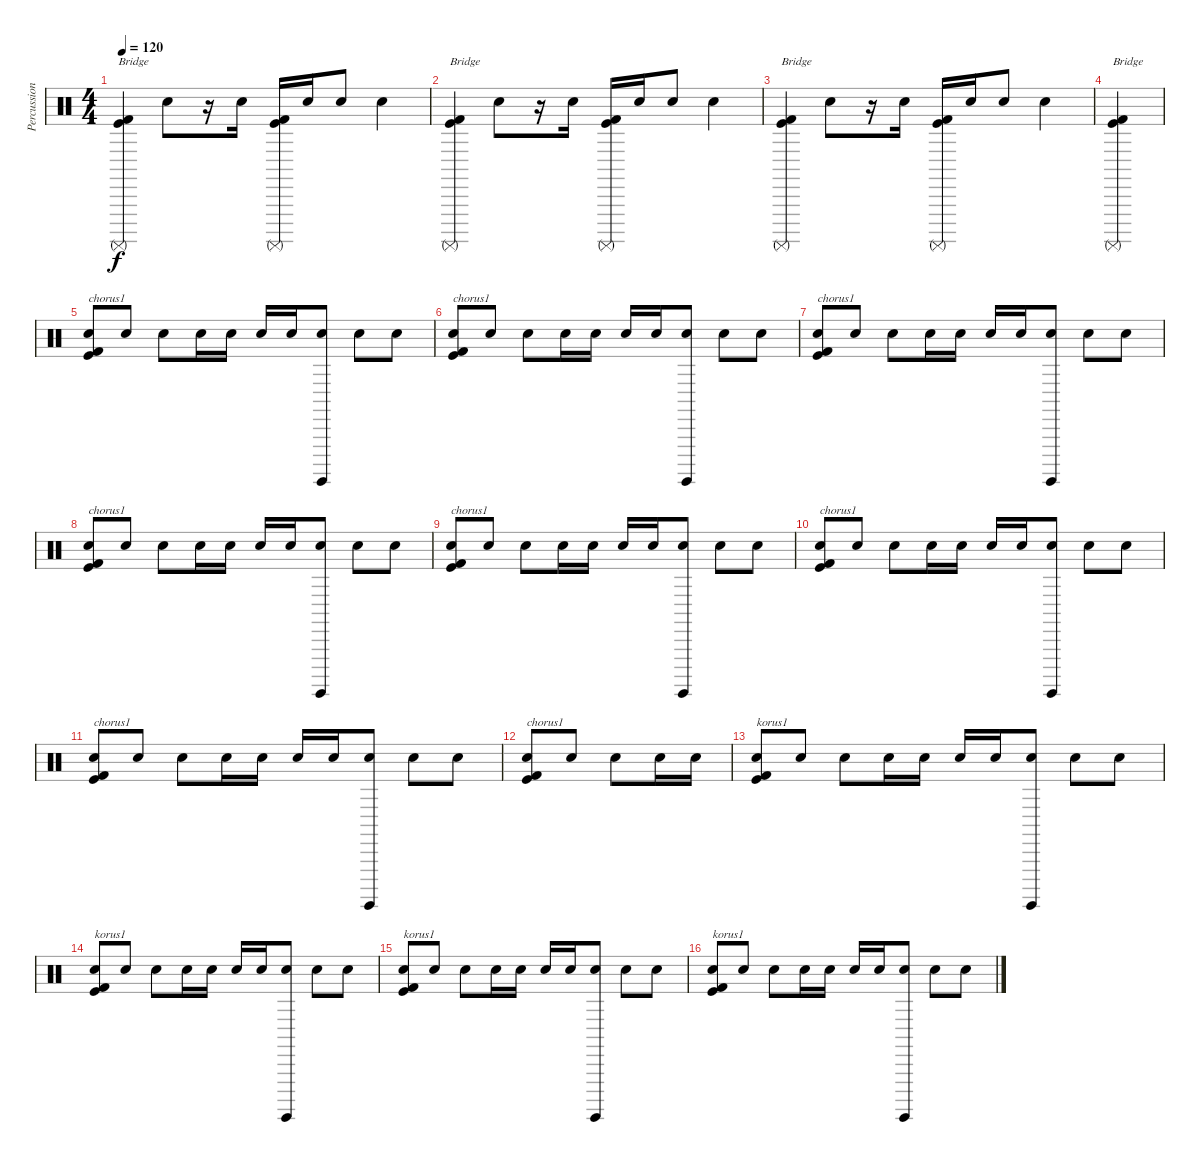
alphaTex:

\track ("Percussion" "Percussion") {instrument percussion}
\staff {score}
\articulation defaults
\ts (4 4)
\tempo 120
\clef neutral
\ks c
("Surdo (mute)" "Kick (hit)" "Kick (hit) 2").4{txt "Bridge" dy f} "Hand Clap (hit)".8 r.16 "Hand Clap (hit)".16 ("Surdo (mute)" "Kick (hit) 2" "Kick (hit)").16 "Hand Clap (hit)".16 "Hand Clap (hit)".8 "Hand Clap (hit)".4 |
("Surdo (mute)" "Kick (hit)" "Kick (hit) 2").4{txt "Bridge"} "Hand Clap (hit)".8 r.16 "Hand Clap (hit)".16 ("Surdo (mute)" "Kick (hit) 2" "Kick (hit)").16 "Hand Clap (hit)".16 "Hand Clap (hit)".8 "Hand Clap (hit)".4 |
("Surdo (mute)" "Kick (hit)" "Kick (hit) 2").4{txt "Bridge"} "Hand Clap (hit)".8 r.16 "Hand Clap (hit)".16 ("Surdo (mute)" "Kick (hit) 2" "Kick (hit)").16 "Hand Clap (hit)".16 "Hand Clap (hit)".8 "Hand Clap (hit)".4 |
("Surdo (mute)" "Kick (hit)" "Kick (hit) 2").4{txt "Bridge"} |
("Hand Clap (hit)" "Kick (hit) 2" "Kick (hit)").8{txt "chorus1"} "Hand Clap (hit)".8 "Hand Clap (hit)".8 "Hand Clap (hit)".16 "Hand Clap (hit)".16 "Hand Clap (hit)".16 "Hand Clap (hit)".16 ("Hand Clap (hit)" "Surdo (hit)").8 "Hand Clap (hit)".8 "Hand Clap (hit)".8 |
("Hand Clap (hit)" "Kick (hit) 2" "Kick (hit)").8{txt "chorus1"} "Hand Clap (hit)".8 "Hand Clap (hit)".8 "Hand Clap (hit)".16 "Hand Clap (hit)".16 "Hand Clap (hit)".16 "Hand Clap (hit)".16 ("Hand Clap (hit)" "Surdo (hit)").8 "Hand Clap (hit)".8 "Hand Clap (hit)".8 |
("Hand Clap (hit)" "Kick (hit) 2" "Kick (hit)").8{txt "chorus1"} "Hand Clap (hit)".8 "Hand Clap (hit)".8 "Hand Clap (hit)".16 "Hand Clap (hit)".16 "Hand Clap (hit)".16 "Hand Clap (hit)".16 ("Hand Clap (hit)" "Surdo (hit)").8 "Hand Clap (hit)".8 "Hand Clap (hit)".8 |
("Hand Clap (hit)" "Kick (hit) 2" "Kick (hit)").8{txt "chorus1"} "Hand Clap (hit)".8 "Hand Clap (hit)".8 "Hand Clap (hit)".16 "Hand Clap (hit)".16 "Hand Clap (hit)".16 "Hand Clap (hit)".16 ("Hand Clap (hit)" "Surdo (hit)").8 "Hand Clap (hit)".8 "Hand Clap (hit)".8 |
("Hand Clap (hit)" "Kick (hit) 2" "Kick (hit)").8{txt "chorus1"} "Hand Clap (hit)".8 "Hand Clap (hit)".8 "Hand Clap (hit)".16 "Hand Clap (hit)".16 "Hand Clap (hit)".16 "Hand Clap (hit)".16 ("Hand Clap (hit)" "Surdo (hit)").8 "Hand Clap (hit)".8 "Hand Clap (hit)".8 |
("Hand Clap (hit)" "Kick (hit) 2" "Kick (hit)").8{txt "chorus1"} "Hand Clap (hit)".8 "Hand Clap (hit)".8 "Hand Clap (hit)".16 "Hand Clap (hit)".16 "Hand Clap (hit)".16 "Hand Clap (hit)".16 ("Hand Clap (hit)" "Surdo (hit)").8 "Hand Clap (hit)".8 "Hand Clap (hit)".8 |
("Hand Clap (hit)" "Kick (hit) 2" "Kick (hit)").8{txt "chorus1"} "Hand Clap (hit)".8 "Hand Clap (hit)".8 "Hand Clap (hit)".16 "Hand Clap (hit)".16 "Hand Clap (hit)".16 "Hand Clap (hit)".16 ("Hand Clap (hit)" "Surdo (hit)").8 "Hand Clap (hit)".8 "Hand Clap (hit)".8 |
("Hand Clap (hit)" "Kick (hit) 2" "Kick (hit)").8{txt "chorus1"} "Hand Clap (hit)".8 "Hand Clap (hit)".8 "Hand Clap (hit)".16 "Hand Clap (hit)".16 |
("Hand Clap (hit)" "Kick (hit) 2" "Kick (hit)").8{txt "korus1"} "Hand Clap (hit)".8 "Hand Clap (hit)".8 "Hand Clap (hit)".16 "Hand Clap (hit)".16 "Hand Clap (hit)".16 "Hand Clap (hit)".16 ("Hand Clap (hit)" "Surdo (hit)").8 "Hand Clap (hit)".8 "Hand Clap (hit)".8 |
("Hand Clap (hit)" "Kick (hit) 2" "Kick (hit)").8{txt "korus1"} "Hand Clap (hit)".8 "Hand Clap (hit)".8 "Hand Clap (hit)".16 "Hand Clap (hit)".16 "Hand Clap (hit)".16 "Hand Clap (hit)".16 ("Hand Clap (hit)" "Surdo (hit)").8 "Hand Clap (hit)".8 "Hand Clap (hit)".8 |
("Hand Clap (hit)" "Kick (hit) 2" "Kick (hit)").8{txt "korus1"} "Hand Clap (hit)".8 "Hand Clap (hit)".8 "Hand Clap (hit)".16 "Hand Clap (hit)".16 "Hand Clap (hit)".16 "Hand Clap (hit)".16 ("Hand Clap (hit)" "Surdo (hit)").8 "Hand Clap (hit)".8 "Hand Clap (hit)".8 |
("Hand Clap (hit)" "Kick (hit) 2" "Kick (hit)").8{txt "korus1"} "Hand Clap (hit)".8 "Hand Clap (hit)".8 "Hand Clap (hit)".16 "Hand Clap (hit)".16 "Hand Clap (hit)".16 "Hand Clap (hit)".16 ("Hand Clap (hit)" "Surdo (hit)").8 "Hand Clap (hit)".8 "Hand Clap (hit)".8
